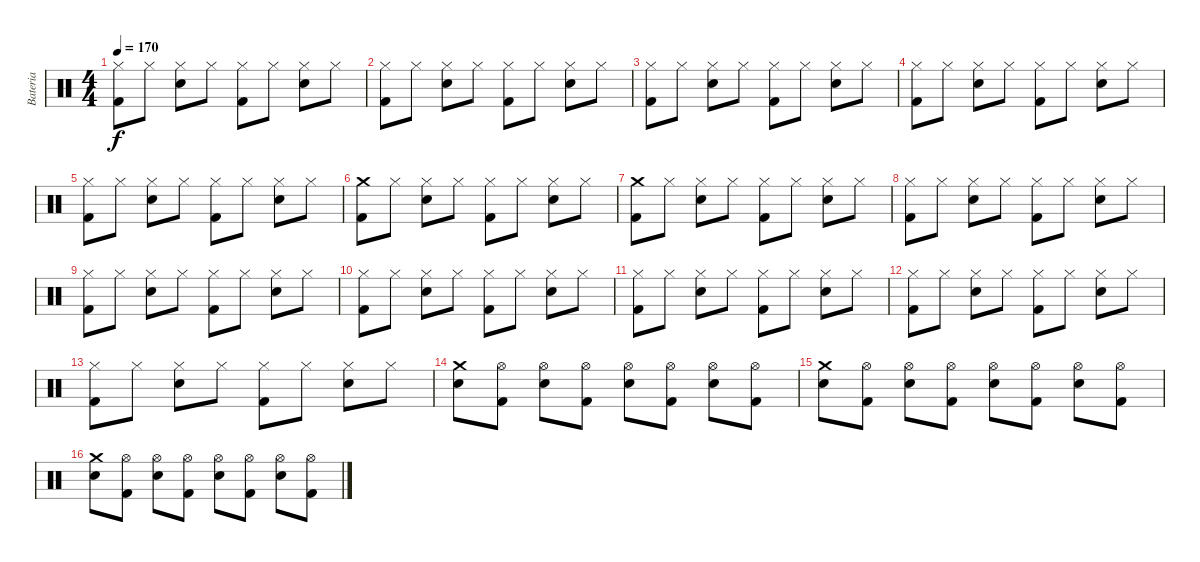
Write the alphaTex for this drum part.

\track ("Bateria" "Bateria") {instrument percussion}
\staff {score}
\articulation defaults
\ts (4 4)
\tempo 170
\clef neutral
\ks c
("Hi-Hat (closed)" "Kick (hit) 2").8{dy f} "Hi-Hat (closed)".8 ("Hi-Hat (closed)" "Snare (hit) 2").8 "Hi-Hat (closed)".8 ("Hi-Hat (closed)" "Kick (hit) 2").8 "Hi-Hat (closed)".8 ("Hi-Hat (closed)" "Snare (hit) 2").8 "Hi-Hat (closed)".8 |
("Hi-Hat (closed)" "Kick (hit) 2").8 "Hi-Hat (closed)".8 ("Hi-Hat (closed)" "Snare (hit) 2").8 "Hi-Hat (closed)".8 ("Hi-Hat (closed)" "Kick (hit) 2").8 "Hi-Hat (closed)".8 ("Hi-Hat (closed)" "Snare (hit) 2").8 "Hi-Hat (closed)".8 |
("Hi-Hat (closed)" "Kick (hit) 2").8 "Hi-Hat (closed)".8 ("Hi-Hat (closed)" "Snare (hit) 2").8 "Hi-Hat (closed)".8 ("Hi-Hat (closed)" "Kick (hit) 2").8 "Hi-Hat (closed)".8 ("Hi-Hat (closed)" "Snare (hit) 2").8 "Hi-Hat (closed)".8 |
("Hi-Hat (closed)" "Kick (hit) 2").8 "Hi-Hat (closed)".8 ("Hi-Hat (closed)" "Snare (hit) 2").8 "Hi-Hat (closed)".8 ("Hi-Hat (closed)" "Kick (hit) 2").8 "Hi-Hat (closed)".8 ("Hi-Hat (closed)" "Snare (hit) 2").8 "Hi-Hat (closed)".8 |
("Hi-Hat (closed)" "Kick (hit) 2").8 "Hi-Hat (closed)".8 ("Hi-Hat (closed)" "Snare (hit) 2").8 "Hi-Hat (closed)".8 ("Hi-Hat (closed)" "Kick (hit) 2").8 "Hi-Hat (closed)".8 ("Hi-Hat (closed)" "Snare (hit) 2").8 "Hi-Hat (closed)".8 |
("Crash medium (hit)" "Kick (hit) 2").8 "Hi-Hat (closed)".8 ("Hi-Hat (closed)" "Snare (hit) 2").8 "Hi-Hat (closed)".8 ("Hi-Hat (closed)" "Kick (hit) 2").8 "Hi-Hat (closed)".8 ("Hi-Hat (closed)" "Snare (hit) 2").8 "Hi-Hat (closed)".8 |
("Crash medium (hit)" "Kick (hit) 2").8 "Hi-Hat (closed)".8 ("Hi-Hat (closed)" "Snare (hit) 2").8 "Hi-Hat (closed)".8 ("Hi-Hat (closed)" "Kick (hit) 2").8 "Hi-Hat (closed)".8 ("Hi-Hat (closed)" "Snare (hit) 2").8 "Hi-Hat (closed)".8 |
("Hi-Hat (closed)" "Kick (hit) 2").8 "Hi-Hat (closed)".8 ("Hi-Hat (closed)" "Snare (hit) 2").8 "Hi-Hat (closed)".8 ("Hi-Hat (closed)" "Kick (hit) 2").8 "Hi-Hat (closed)".8 ("Hi-Hat (closed)" "Snare (hit) 2").8 "Hi-Hat (closed)".8 |
("Hi-Hat (closed)" "Kick (hit) 2").8 "Hi-Hat (closed)".8 ("Hi-Hat (closed)" "Snare (hit) 2").8 "Hi-Hat (closed)".8 ("Hi-Hat (closed)" "Kick (hit) 2").8 "Hi-Hat (closed)".8 ("Hi-Hat (closed)" "Snare (hit) 2").8 "Hi-Hat (closed)".8 |
("Hi-Hat (closed)" "Kick (hit) 2").8 "Hi-Hat (closed)".8 ("Hi-Hat (closed)" "Snare (hit) 2").8 "Hi-Hat (closed)".8 ("Hi-Hat (closed)" "Kick (hit) 2").8 "Hi-Hat (closed)".8 ("Hi-Hat (closed)" "Snare (hit) 2").8 "Hi-Hat (closed)".8 |
("Hi-Hat (closed)" "Kick (hit) 2").8 "Hi-Hat (closed)".8 ("Hi-Hat (closed)" "Snare (hit) 2").8 "Hi-Hat (closed)".8 ("Hi-Hat (closed)" "Kick (hit) 2").8 "Hi-Hat (closed)".8 ("Hi-Hat (closed)" "Snare (hit) 2").8 "Hi-Hat (closed)".8 |
("Hi-Hat (closed)" "Kick (hit) 2").8 "Hi-Hat (closed)".8 ("Hi-Hat (closed)" "Snare (hit) 2").8 "Hi-Hat (closed)".8 ("Hi-Hat (closed)" "Kick (hit) 2").8 "Hi-Hat (closed)".8 ("Hi-Hat (closed)" "Snare (hit) 2").8 "Hi-Hat (closed)".8 |
("Hi-Hat (closed)" "Kick (hit) 2").8 "Hi-Hat (closed)".8 ("Hi-Hat (closed)" "Snare (hit) 2").8 "Hi-Hat (closed)".8 ("Hi-Hat (closed)" "Kick (hit) 2").8 "Hi-Hat (closed)".8 ("Hi-Hat (closed)" "Snare (hit) 2").8 "Hi-Hat (closed)".8 |
("Crash medium (hit)" "Snare (hit) 2").8 ("Hi-Hat (open)" "Kick (hit) 2").8 ("Hi-Hat (open)" "Snare (hit) 2").8 ("Hi-Hat (open)" "Kick (hit) 2").8 ("Hi-Hat (open)" "Snare (hit) 2").8 ("Hi-Hat (open)" "Kick (hit) 2").8 ("Hi-Hat (open)" "Snare (hit) 2").8 ("Hi-Hat (open)" "Kick (hit) 2").8 |
("Crash medium (hit)" "Snare (hit) 2").8 ("Hi-Hat (open)" "Kick (hit) 2").8 ("Hi-Hat (open)" "Snare (hit) 2").8 ("Hi-Hat (open)" "Kick (hit) 2").8 ("Hi-Hat (open)" "Snare (hit) 2").8 ("Hi-Hat (open)" "Kick (hit) 2").8 ("Hi-Hat (open)" "Snare (hit) 2").8 ("Hi-Hat (open)" "Kick (hit) 2").8 |
("Crash medium (hit)" "Snare (hit) 2").8 ("Hi-Hat (open)" "Kick (hit) 2").8 ("Hi-Hat (open)" "Snare (hit) 2").8 ("Hi-Hat (open)" "Kick (hit) 2").8 ("Hi-Hat (open)" "Snare (hit) 2").8 ("Hi-Hat (open)" "Kick (hit) 2").8 ("Hi-Hat (open)" "Snare (hit) 2").8 ("Hi-Hat (open)" "Kick (hit) 2").8
